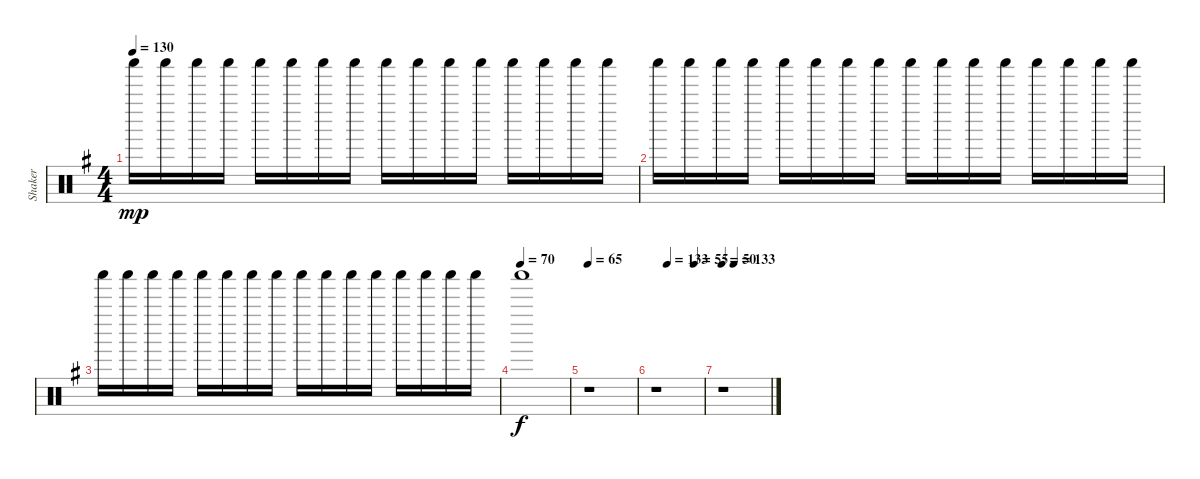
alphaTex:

\track ("Shaker" "Shaker") {instrument percussion}
\staff {score}
\articulation defaults
\ts (4 4)
\tempo 130
\clef neutral
\ks g "Shaker (hit)".16{dy mp} "Shaker (hit)".16 "Shaker (hit)".16 "Shaker (hit)".16 "Shaker (hit)".16 "Shaker (hit)".16 "Shaker (hit)".16 "Shaker (hit)".16 "Shaker (hit)".16 "Shaker (hit)".16 "Shaker (hit)".16 "Shaker (hit)".16 "Shaker (hit)".16 "Shaker (hit)".16 "Shaker (hit)".16 "Shaker (hit)".16
|
"Shaker (hit)".16 "Shaker (hit)".16 "Shaker (hit)".16 "Shaker (hit)".16 "Shaker (hit)".16 "Shaker (hit)".16 "Shaker (hit)".16 "Shaker (hit)".16 "Shaker (hit)".16 "Shaker (hit)".16 "Shaker (hit)".16 "Shaker (hit)".16 "Shaker (hit)".16 "Shaker (hit)".16 "Shaker (hit)".16 "Shaker (hit)".16 |
"Shaker (hit)".16 "Shaker (hit)".16 "Shaker (hit)".16 "Shaker (hit)".16 "Shaker (hit)".16 "Shaker (hit)".16 "Shaker (hit)".16 "Shaker (hit)".16 "Shaker (hit)".16 "Shaker (hit)".16 "Shaker (hit)".16 "Shaker (hit)".16 "Shaker (hit)".16 "Shaker (hit)".16 "Shaker (hit)".16 "Shaker (hit)".16 |
\tempo (70)
"Shaker (hit)".1{dy f} |
\tempo 65
r.1 |
\tempo (133 0.25)
\tempo (55 0.8125)
r.1 |
\tempo 50
\tempo (133 0.25)
r.1
